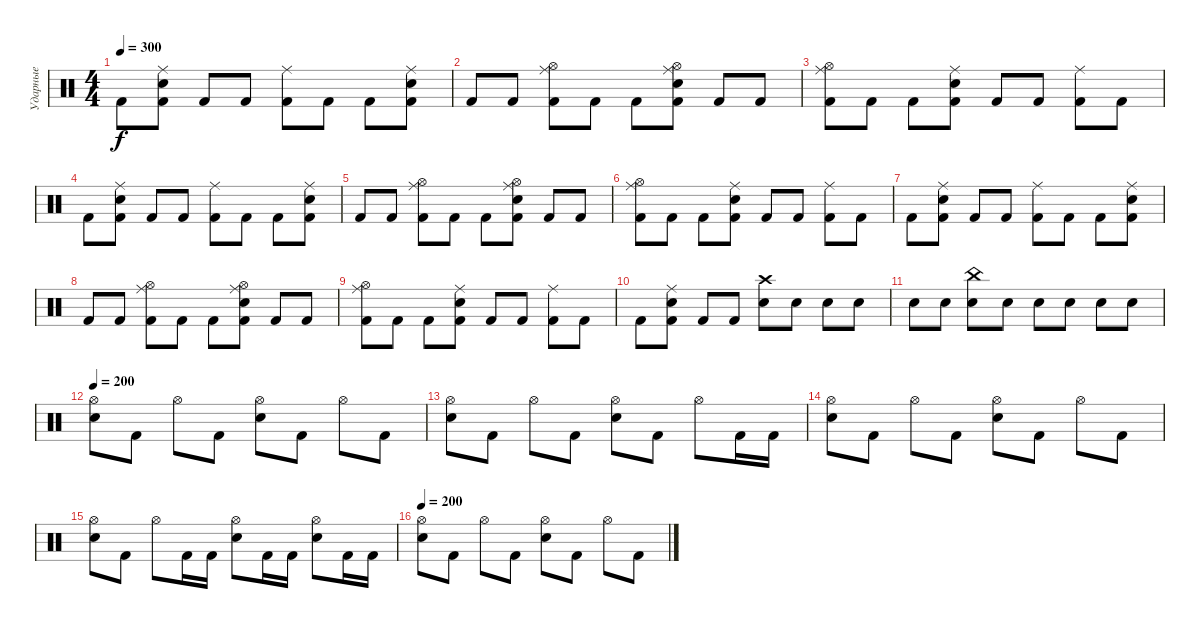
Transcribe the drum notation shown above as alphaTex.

\track ("Ударные" "Ударные") {instrument percussion}
\staff {score}
\articulation defaults
\ts (4 4)
\tempo 300
\clef neutral
\ks c "Kick (hit) 2".8{dy f}
("Kick (hit) 2" "Electric Snare (hit)" "Ride (middle)").8 "Kick (hit) 2".8 "Kick (hit) 2".8 ("Kick (hit) 2" "Ride (middle)").8 "Kick (hit) 2".8 "Kick (hit) 2".8 ("Kick (hit) 2" "Electric Snare (hit)" "Ride (middle)").8 |
"Kick (hit) 2".8 "Kick (hit) 2".8 ("Kick (hit) 2" "Ride (middle)" "Hi-Hat (open)").8 "Kick (hit) 2".8 "Kick (hit) 2".8 ("Kick (hit) 2" "Electric Snare (hit)" "Ride (middle)" "Hi-Hat (open)").8 "Kick (hit) 2".8 "Kick (hit) 2".8 |
("Ride (middle)" "Hi-Hat (open)" "Kick (hit) 2").8 "Kick (hit) 2".8 "Kick (hit) 2".8 ("Electric Snare (hit)" "Ride (middle)" "Kick (hit) 2").8 "Kick (hit) 2".8 "Kick (hit) 2".8 ("Ride (middle)" "Kick (hit) 2").8 "Kick (hit) 2".8 |
"Kick (hit) 2".8 ("Kick (hit) 2" "Electric Snare (hit)" "Ride (middle)").8 "Kick (hit) 2".8 "Kick (hit) 2".8 ("Kick (hit) 2" "Ride (middle)").8 "Kick (hit) 2".8 "Kick (hit) 2".8 ("Kick (hit) 2" "Electric Snare (hit)" "Ride (middle)").8 |
"Kick (hit) 2".8 "Kick (hit) 2".8 ("Kick (hit) 2" "Ride (middle)" "Hi-Hat (open)").8 "Kick (hit) 2".8 "Kick (hit) 2".8 ("Kick (hit) 2" "Electric Snare (hit)" "Ride (middle)" "Hi-Hat (open)").8 "Kick (hit) 2".8 "Kick (hit) 2".8 |
("Ride (middle)" "Hi-Hat (open)" "Kick (hit) 2").8 "Kick (hit) 2".8 "Kick (hit) 2".8 ("Electric Snare (hit)" "Ride (middle)" "Kick (hit) 2").8 "Kick (hit) 2".8 "Kick (hit) 2".8 ("Ride (middle)" "Kick (hit) 2").8 "Kick (hit) 2".8 |
"Kick (hit) 2".8 ("Kick (hit) 2" "Electric Snare (hit)" "Ride (middle)").8 "Kick (hit) 2".8 "Kick (hit) 2".8 ("Kick (hit) 2" "Ride (middle)").8 "Kick (hit) 2".8 "Kick (hit) 2".8 ("Kick (hit) 2" "Electric Snare (hit)" "Ride (middle)").8 |
"Kick (hit) 2".8 "Kick (hit) 2".8 ("Kick (hit) 2" "Ride (middle)" "Hi-Hat (open)").8 "Kick (hit) 2".8 "Kick (hit) 2".8 ("Kick (hit) 2" "Electric Snare (hit)" "Ride (middle)" "Hi-Hat (open)").8 "Kick (hit) 2".8 "Kick (hit) 2".8 |
("Ride (middle)" "Hi-Hat (open)" "Kick (hit) 2").8 "Kick (hit) 2".8 "Kick (hit) 2".8 ("Electric Snare (hit)" "Ride (middle)" "Kick (hit) 2").8 "Kick (hit) 2".8 "Kick (hit) 2".8 ("Ride (middle)" "Kick (hit) 2").8 "Kick (hit) 2".8 |
"Kick (hit) 2".8 ("Kick (hit) 2" "Electric Snare (hit)" "Ride (middle)").8 "Kick (hit) 2".8 "Kick (hit) 2".8 ("Electric Snare (hit)" "Crash high (hit)").8 "Electric Snare (hit)".8 "Electric Snare (hit)".8 "Electric Snare (hit)".8 |
"Electric Snare (hit)".8 "Electric Snare (hit)".8 ("Snare (hit) 2" "China (hit)").8 "Snare (hit) 2".8 "Snare (hit) 2".8 "Snare (hit) 2".8 "Snare (hit) 2".8 "Snare (hit) 2".8 |
\tempo 200
("Hi-Hat (open)" "Electric Snare (hit)").8 "Kick (hit) 2".8 "Hi-Hat (open)".8 "Kick (hit) 2".8 ("Electric Snare (hit)" "Hi-Hat (open)").8 "Kick (hit) 2".8 "Hi-Hat (open)".8 "Kick (hit) 2".8 |
("Electric Snare (hit)" "Hi-Hat (open)").8 "Kick (hit) 2".8 "Hi-Hat (open)".8 "Kick (hit) 2".8 ("Electric Snare (hit)" "Hi-Hat (open)").8 "Kick (hit) 2".8 "Hi-Hat (open)".8 "Kick (hit) 2".16 "Kick (hit) 2".16 |
("Hi-Hat (open)" "Electric Snare (hit)").8 "Kick (hit) 2".8 "Hi-Hat (open)".8 "Kick (hit) 2".8 ("Electric Snare (hit)" "Hi-Hat (open)").8 "Kick (hit) 2".8 "Hi-Hat (open)".8 "Kick (hit) 2".8 |
("Electric Snare (hit)" "Hi-Hat (open)").8 "Kick (hit) 2".8 "Hi-Hat (open)".8 "Kick (hit) 2".16 "Kick (hit) 2".16 ("Electric Snare (hit)" "Hi-Hat (open)").8 "Kick (hit) 2".16 "Kick (hit) 2".16 ("Electric Snare (hit)" "Hi-Hat (open)").8 "Kick (hit) 2".16 "Kick (hit) 2".16 |
\tempo 200
("Hi-Hat (open)" "Electric Snare (hit)").8 "Kick (hit) 2".8 "Hi-Hat (open)".8 "Kick (hit) 2".8 ("Electric Snare (hit)" "Hi-Hat (open)").8 "Kick (hit) 2".8 "Hi-Hat (open)".8 "Kick (hit) 2".8
